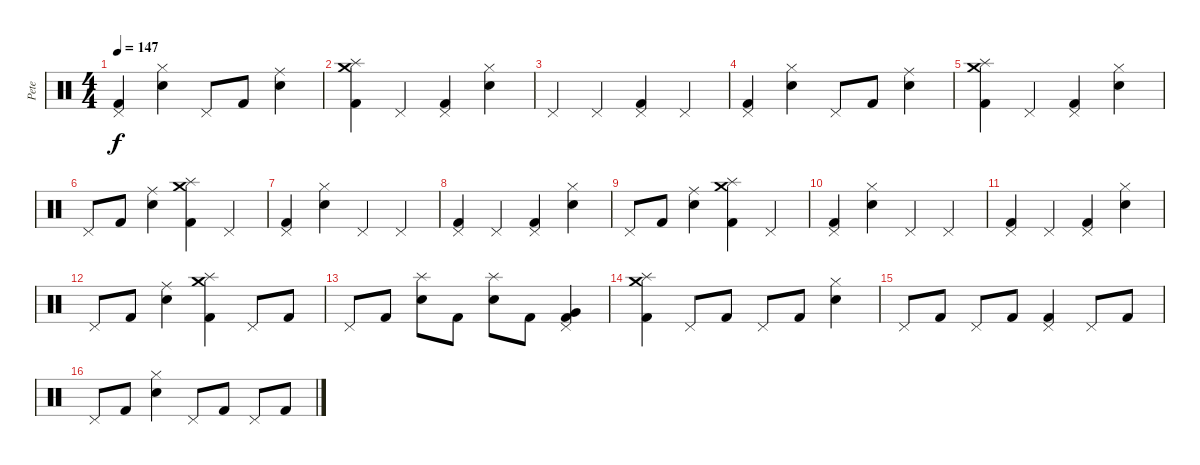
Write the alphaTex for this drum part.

\track ("Pete" "Pete") {instrument percussion}
\staff {score}
\articulation defaults
\ts (4 4)
\tempo 147
\clef neutral
\ks c
("Pedal Hi-Hat (hit)" "Kick (hit) 2").4{dy f} ("Hi-Hat (closed)" "Electric Snare (hit)").4 "Pedal Hi-Hat (hit)".8 "Kick (hit) 2".8 ("Ride (middle)" "Electric Snare (hit)").4 |
("Crash medium (hit)" "Splash (hit)" "Kick (hit) 2").4 "Pedal Hi-Hat (hit)".4 ("Pedal Hi-Hat (hit)" "Kick (hit) 2").4 ("Hi-Hat (closed)" "Electric Snare (hit)").4 |
"Pedal Hi-Hat (hit)".4 "Pedal Hi-Hat (hit)".4 ("Pedal Hi-Hat (hit)" "Kick (hit) 2").4 "Pedal Hi-Hat (hit)".4 |
("Pedal Hi-Hat (hit)" "Kick (hit) 2").4 ("Hi-Hat (closed)" "Electric Snare (hit)").4 "Pedal Hi-Hat (hit)".8 "Kick (hit) 2".8 ("Ride (middle)" "Electric Snare (hit)").4 |
("Crash medium (hit)" "Splash (hit)" "Kick (hit) 2").4 "Pedal Hi-Hat (hit)".4 ("Pedal Hi-Hat (hit)" "Kick (hit) 2").4 ("Hi-Hat (closed)" "Electric Snare (hit)").4 |
"Pedal Hi-Hat (hit)".8 "Kick (hit) 2".8 ("Ride (middle)" "Electric Snare (hit)").4 ("Crash medium (hit)" "Splash (hit)" "Kick (hit) 2").4 "Pedal Hi-Hat (hit)".4 |
("Pedal Hi-Hat (hit)" "Kick (hit) 2").4 ("Hi-Hat (closed)" "Electric Snare (hit)").4 "Pedal Hi-Hat (hit)".4 "Pedal Hi-Hat (hit)".4 |
("Pedal Hi-Hat (hit)" "Kick (hit) 2").4 "Pedal Hi-Hat (hit)".4 ("Pedal Hi-Hat (hit)" "Kick (hit) 2").4 ("Hi-Hat (closed)" "Electric Snare (hit)").4 |
"Pedal Hi-Hat (hit)".8 "Kick (hit) 2".8 ("Ride (middle)" "Electric Snare (hit)").4 ("Crash medium (hit)" "Splash (hit)" "Kick (hit) 2").4 "Pedal Hi-Hat (hit)".4 |
("Pedal Hi-Hat (hit)" "Kick (hit) 2").4 ("Hi-Hat (closed)" "Electric Snare (hit)").4 "Pedal Hi-Hat (hit)".4 "Pedal Hi-Hat (hit)".4 |
("Pedal Hi-Hat (hit)" "Kick (hit) 2").4 "Pedal Hi-Hat (hit)".4 ("Pedal Hi-Hat (hit)" "Kick (hit) 2").4 ("Hi-Hat (closed)" "Electric Snare (hit)").4 |
"Pedal Hi-Hat (hit)".8 "Kick (hit) 2".8 ("Ride (middle)" "Electric Snare (hit)").4 ("Crash medium (hit)" "Splash (hit)" "Kick (hit) 2").4 "Pedal Hi-Hat (hit)".8 "Kick (hit) 2".8 |
"Pedal Hi-Hat (hit)".8 "Kick (hit) 2".8 ("Splash (hit)" "Electric Snare (hit)").8 "Kick (hit) 2".8 ("Splash (hit)" "Electric Snare (hit)").8 "Kick (hit) 2".8 ("Pedal Hi-Hat (hit)" "Very Low Tom (hit)" "Kick (hit) 2").4 |
("Crash medium (hit)" "Splash (hit)" "Kick (hit) 2").4 "Pedal Hi-Hat (hit)".8 "Kick (hit) 2".8 "Pedal Hi-Hat (hit)".8 "Kick (hit) 2".8 ("Hi-Hat (closed)" "Electric Snare (hit)").4 |
"Pedal Hi-Hat (hit)".8 "Kick (hit) 2".8 "Pedal Hi-Hat (hit)".8 "Kick (hit) 2".8 ("Pedal Hi-Hat (hit)" "Kick (hit) 2").4 "Pedal Hi-Hat (hit)".8 "Kick (hit) 2".8 |
"Pedal Hi-Hat (hit)".8 "Kick (hit) 2".8 ("Hi-Hat (closed)" "Electric Snare (hit)").4 "Pedal Hi-Hat (hit)".8 "Kick (hit) 2".8 "Pedal Hi-Hat (hit)".8 "Kick (hit) 2".8
